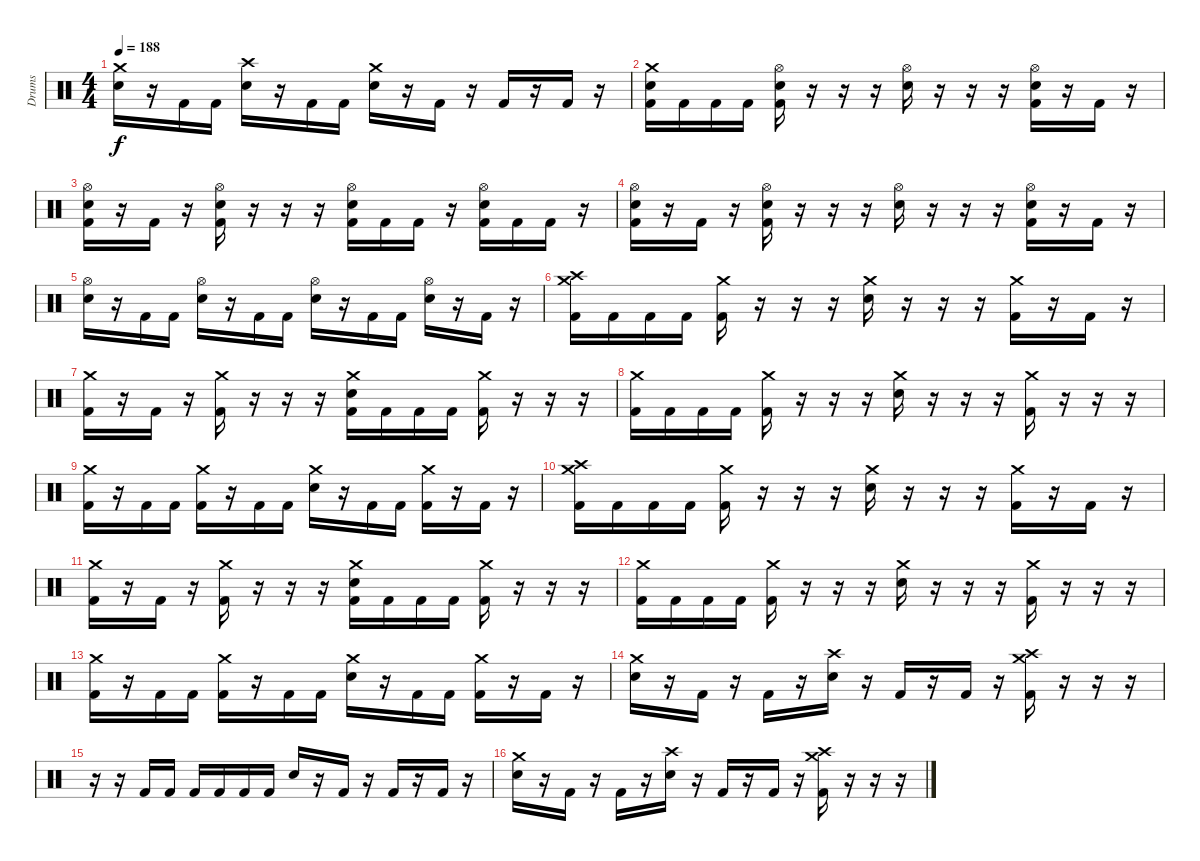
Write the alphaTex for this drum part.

\track ("Drums" "Drums") {instrument percussion}
\staff {score}
\articulation defaults
\ts (4 4)
\tempo 188
\clef neutral
\ks c
("Crash medium (hit)" "Snare (hit) 2").16{dy f} r.16 "Kick (hit) 2".16 "Kick (hit) 2".16 ("Crash high (hit)" "Snare (hit) 2").16 r.16 "Kick (hit) 2".16 "Kick (hit) 2".16 ("Crash medium (hit)" "Snare (hit) 2").16 r.16 "Kick (hit) 2".16 r.16 "Kick (hit) 2".16 r.16 "Kick (hit) 2".16 r.16 |
("Crash medium (hit)" "Snare (hit) 2" "Kick (hit) 2").16 "Kick (hit) 2".16 "Kick (hit) 2".16 "Kick (hit) 2".16 ("Hi-Hat (open)" "Snare (hit) 2" "Kick (hit) 2").16 r.16 r.16 r.16 ("Hi-Hat (open)" "Snare (hit) 2").16 r.16 r.16 r.16 ("Hi-Hat (open)" "Snare (hit) 2" "Kick (hit) 2").16 r.16 "Kick (hit) 2".16 r.16 |
("Hi-Hat (open)" "Snare (hit) 2" "Kick (hit) 2").16 r.16 "Kick (hit) 2".16 r.16 ("Hi-Hat (open)" "Snare (hit) 2" "Kick (hit) 2").16 r.16 r.16 r.16 ("Hi-Hat (open)" "Snare (hit) 2" "Kick (hit) 2").16 "Kick (hit) 2".16 "Kick (hit) 2".16 r.16 ("Hi-Hat (open)" "Snare (hit) 2" "Kick (hit) 2").16 "Kick (hit) 2".16 "Kick (hit) 2".16 r.16 |
("Hi-Hat (open)" "Snare (hit) 2" "Kick (hit) 2").16 r.16 "Kick (hit) 2".16 r.16 ("Hi-Hat (open)" "Snare (hit) 2" "Kick (hit) 2").16 r.16 r.16 r.16 ("Hi-Hat (open)" "Snare (hit) 2").16 r.16 r.16 r.16 ("Hi-Hat (open)" "Snare (hit) 2" "Kick (hit) 2").16 r.16 "Kick (hit) 2".16 r.16 |
("Hi-Hat (open)" "Snare (hit) 2").16 r.16 "Kick (hit) 2".16 "Kick (hit) 2".16 ("Hi-Hat (open)" "Snare (hit) 2").16 r.16 "Kick (hit) 2".16 "Kick (hit) 2".16 ("Hi-Hat (open)" "Snare (hit) 2").16 r.16 "Kick (hit) 2".16 "Kick (hit) 2".16 ("Hi-Hat (open)" "Snare (hit) 2").16 r.16 "Kick (hit) 2".16 r.16 |
("Crash medium (hit)" "Crash high (hit)" "Kick (hit) 2").16 "Kick (hit) 2".16 "Kick (hit) 2".16 "Kick (hit) 2".16 ("Crash medium (hit)" "Kick (hit) 2").16 r.16 r.16 r.16 ("Crash medium (hit)" "Snare (hit) 2").16 r.16 r.16 r.16 ("Crash medium (hit)" "Kick (hit) 2").16 r.16 "Kick (hit) 2".16 r.16 |
("Crash medium (hit)" "Kick (hit) 2").16 r.16 "Kick (hit) 2".16 r.16 ("Crash medium (hit)" "Kick (hit) 2").16 r.16 r.16 r.16 ("Crash medium (hit)" "Snare (hit) 2" "Kick (hit) 2").16 "Kick (hit) 2".16 "Kick (hit) 2".16 "Kick (hit) 2".16 ("Crash medium (hit)" "Kick (hit) 2").16 r.16 r.16 r.16 |
("Crash medium (hit)" "Kick (hit) 2").16 "Kick (hit) 2".16 "Kick (hit) 2".16 "Kick (hit) 2".16 ("Crash medium (hit)" "Kick (hit) 2").16 r.16 r.16 r.16 ("Crash medium (hit)" "Snare (hit) 2").16 r.16 r.16 r.16 ("Crash medium (hit)" "Kick (hit) 2").16 r.16 r.16 r.16 |
("Crash medium (hit)" "Kick (hit) 2").16 r.16 "Kick (hit) 2".16 "Kick (hit) 2".16 ("Crash medium (hit)" "Kick (hit) 2").16 r.16 "Kick (hit) 2".16 "Kick (hit) 2".16 ("Crash medium (hit)" "Snare (hit) 2").16 r.16 "Kick (hit) 2".16 "Kick (hit) 2".16 ("Crash medium (hit)" "Kick (hit) 2").16 r.16 "Kick (hit) 2".16 r.16 |
("Crash medium (hit)" "Crash high (hit)" "Kick (hit) 2").16 "Kick (hit) 2".16 "Kick (hit) 2".16 "Kick (hit) 2".16 ("Crash medium (hit)" "Kick (hit) 2").16 r.16 r.16 r.16 ("Crash medium (hit)" "Snare (hit) 2").16 r.16 r.16 r.16 ("Crash medium (hit)" "Kick (hit) 2").16 r.16 "Kick (hit) 2".16 r.16 |
("Crash medium (hit)" "Kick (hit) 2").16 r.16 "Kick (hit) 2".16 r.16 ("Crash medium (hit)" "Kick (hit) 2").16 r.16 r.16 r.16 ("Crash medium (hit)" "Snare (hit) 2" "Kick (hit) 2").16 "Kick (hit) 2".16 "Kick (hit) 2".16 "Kick (hit) 2".16 ("Crash medium (hit)" "Kick (hit) 2").16 r.16 r.16 r.16 |
("Crash medium (hit)" "Kick (hit) 2").16 "Kick (hit) 2".16 "Kick (hit) 2".16 "Kick (hit) 2".16 ("Crash medium (hit)" "Kick (hit) 2").16 r.16 r.16 r.16 ("Crash medium (hit)" "Snare (hit) 2").16 r.16 r.16 r.16 ("Crash medium (hit)" "Kick (hit) 2").16 r.16 r.16 r.16 |
("Crash medium (hit)" "Kick (hit) 2").16 r.16 "Kick (hit) 2".16 "Kick (hit) 2".16 ("Crash medium (hit)" "Kick (hit) 2").16 r.16 "Kick (hit) 2".16 "Kick (hit) 2".16 ("Crash medium (hit)" "Snare (hit) 2").16 r.16 "Kick (hit) 2".16 "Kick (hit) 2".16 ("Crash medium (hit)" "Kick (hit) 2").16 r.16 "Kick (hit) 2".16 r.16 |
("Crash medium (hit)" "Snare (hit) 2").16 r.16 "Kick (hit) 2".16 r.16 "Kick (hit) 2".16 r.16 ("Crash high (hit)" "Snare (hit) 2").16 r.16 "Kick (hit) 2".16 r.16 "Kick (hit) 2".16 r.16 ("Crash medium (hit)" "Crash high (hit)" "Kick (hit) 2").16 r.16 r.16 r.16 |
r.16 r.16 "Kick (hit) 2".16 "Kick (hit) 2".16 "Kick (hit) 2".16 "Kick (hit) 2".16 "Kick (hit) 2".16 "Kick (hit) 2".16 "Snare (hit) 2".16 r.16 "Kick (hit) 2".16 r.16 "Kick (hit) 2".16 r.16 "Kick (hit) 2".16 r.16 |
("Crash medium (hit)" "Snare (hit) 2").16 r.16 "Kick (hit) 2".16 r.16 "Kick (hit) 2".16 r.16 ("Crash high (hit)" "Snare (hit) 2").16 r.16 "Kick (hit) 2".16 r.16 "Kick (hit) 2".16 r.16 ("Crash medium (hit)" "Crash high (hit)" "Kick (hit) 2").16 r.16 r.16 r.16
